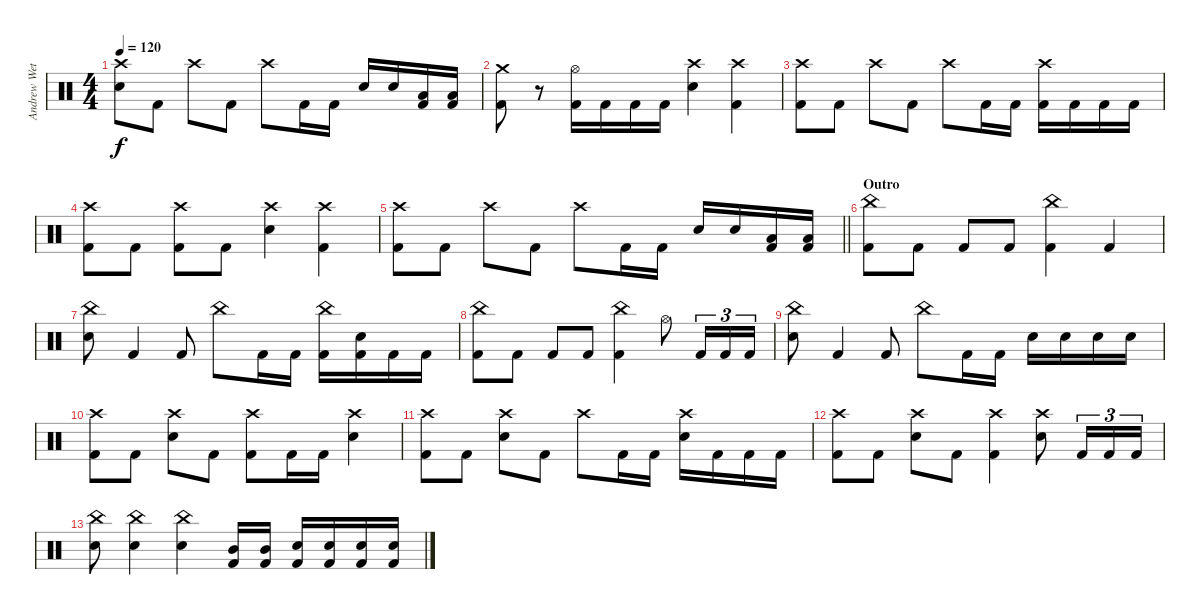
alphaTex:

\track ("Andrew Wetzel" "Andrew Wet") {instrument percussion}
\staff
\articulation defaults
\ts (4 4)
\tempo 120
\clef neutral
\ks c
("Crash high (hit)" "Snare (hit) 2").8{dy f} "Kick (hit) 2".8 "Crash high (hit)".8 "Kick (hit) 2".8 "Crash high (hit)".8 "Kick (hit) 2".16 "Kick (hit) 2".16 "Snare (hit) 2".16 "Snare (hit) 2".16 ("Low Tom (hit)" "Kick (hit) 2").16 ("Low Tom (hit)" "Kick (hit) 2").16 |
("Crash medium (hit)" "Kick (hit) 2").8 r.8{volume 0} ("Hi-Hat (open)" "Kick (hit) 2").16{volume 13} "Kick (hit) 2".16 "Kick (hit) 2".16 "Kick (hit) 2".16 ("Crash high (hit)" "Snare (hit) 2").4 ("Crash high (hit)" "Kick (hit) 2").4 |
("Crash high (hit)" "Kick (hit) 2").8 "Kick (hit) 2".8 "Crash high (hit)".8 "Kick (hit) 2".8 "Crash high (hit)".8 "Kick (hit) 2".16 "Kick (hit) 2".16 ("Crash high (hit)" "Kick (hit) 2").16 "Kick (hit) 2".16 "Kick (hit) 2".16 "Kick (hit) 2".16 |
("Crash high (hit)" "Kick (hit) 2").8 "Kick (hit) 2".8 ("Crash high (hit)" "Kick (hit) 2").8 "Kick (hit) 2".8 ("Crash high (hit)" "Snare (hit) 2").4 ("Crash high (hit)" "Kick (hit) 2").4 |
\barLineRight lightlight
("Crash high (hit)" "Kick (hit) 2").8 "Kick (hit) 2".8 "Crash high (hit)".8 "Kick (hit) 2".8 "Crash high (hit)".8 "Kick (hit) 2".16 "Kick (hit) 2".16 "Snare (hit) 2".16 "Snare (hit) 2".16 ("Low Tom (hit)" "Kick (hit) 2").16 ("Low Tom (hit)" "Kick (hit) 2").16 |
\section ("" "Outro")
("China (hit)" "Kick (hit) 2").8 "Kick (hit) 2".8 "Kick (hit) 2".8 "Kick (hit) 2".8 ("China (hit)" "Kick (hit) 2").4 "Kick (hit) 2".4 |
("China (hit)" "Snare (hit) 2").8 "Kick (hit) 2".4 "Kick (hit) 2".8 "China (hit)".8 "Kick (hit) 2".16 "Kick (hit) 2".16 ("China (hit)" "Kick (hit) 2").16 ("Snare (hit) 2" "Kick (hit) 2").16 "Kick (hit) 2".16 "Kick (hit) 2".16 |
("China (hit)" "Kick (hit) 2").8 "Kick (hit) 2".8 "Kick (hit) 2".8 "Kick (hit) 2".8 ("China (hit)" "Kick (hit) 2").4 "Hi-Hat (open)".8 "Kick (hit) 2".16{tu (3 2)} "Kick (hit) 2".16{tu (3 2)} "Kick (hit) 2".16{tu (3 2)} |
("China (hit)" "Snare (hit) 2").8 "Kick (hit) 2".4 "Kick (hit) 2".8 "China (hit)".8 "Kick (hit) 2".16 "Kick (hit) 2".16 "Snare (hit) 2".16 "Snare (hit) 2".16 "Snare (hit) 2".16 "Snare (hit) 2".16 |
("Crash high (hit)" "Kick (hit) 2").8 "Kick (hit) 2".8 ("Crash high (hit)" "Snare (hit) 2").8 "Kick (hit) 2".8 ("Crash high (hit)" "Kick (hit) 2").8 "Kick (hit) 2".16 "Kick (hit) 2".16 ("Crash high (hit)" "Snare (hit) 2").4 |
("Crash high (hit)" "Kick (hit) 2").8 "Kick (hit) 2".8 ("Crash high (hit)" "Snare (hit) 2").8 "Kick (hit) 2".8 "Crash high (hit)".8 "Kick (hit) 2".16 "Kick (hit) 2".16 ("Crash high (hit)" "Snare (hit) 2").16 "Kick (hit) 2".16 "Kick (hit) 2".16 "Kick (hit) 2".16 |
("Crash high (hit)" "Kick (hit) 2").8 "Kick (hit) 2".8 ("Crash high (hit)" "Snare (hit) 2").8 "Kick (hit) 2".8 ("Crash high (hit)" "Kick (hit) 2").4 ("Crash high (hit)" "Snare (hit) 2").8 "Kick (hit) 2".16{tu (3 2)} "Kick (hit) 2".16{tu (3 2)} "Kick (hit) 2".16{tu (3 2)} |
("China (hit)" "Snare (hit) 2").8 ("China (hit)" "Snare (hit) 2").4 ("China (hit)" "Snare (hit) 2").4 ("Mid Tom (hit)" "Kick (hit) 2").16 ("Mid Tom (hit)" "Kick (hit) 2").16 ("Snare (hit) 2" "Kick (hit) 2").16 ("Snare (hit) 2" "Kick (hit) 2").16 ("Snare (hit) 2" "Kick (hit) 2").16 ("Snare (hit) 2" "Kick (hit) 2").16
